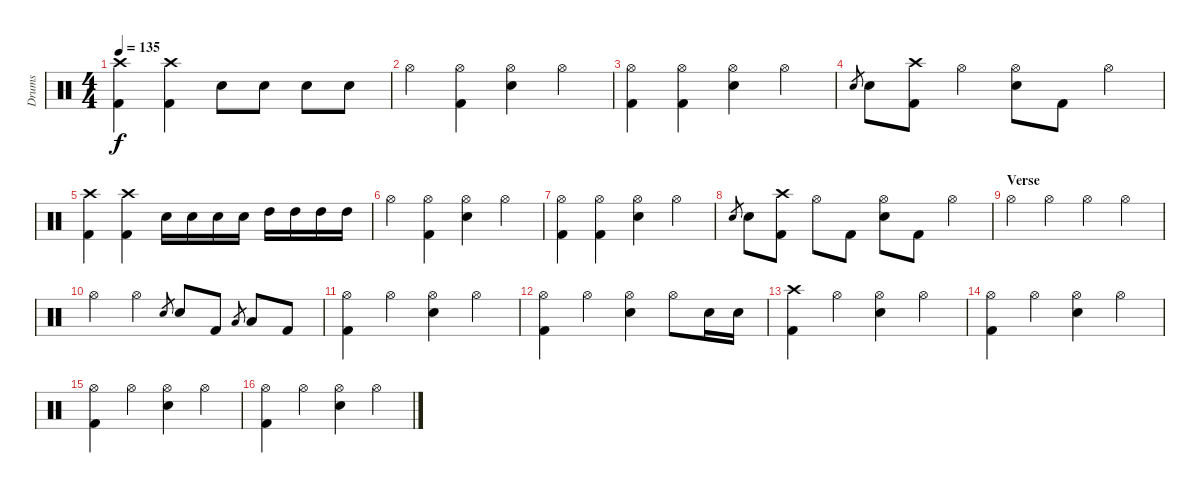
\track ("Drums" "Drums") {instrument percussion}
\staff {score}
\articulation defaults
\ts (4 4)
\tempo 135
\clef neutral
\ks c
("Crash high (hit)" "Kick (hit) 2").4{dy f} ("Crash high (hit)" "Kick (hit) 2").4 "Electric Snare (hit)".8 "Electric Snare (hit)".8 "Electric Snare (hit)".8 "Electric Snare (hit)".8 |
"Hi-Hat (open)".4 ("Hi-Hat (open)" "Kick (hit) 2").4 ("Hi-Hat (open)" "Electric Snare (hit)").4 "Hi-Hat (open)".4 |
("Hi-Hat (open)" "Kick (hit) 2").4 ("Hi-Hat (open)" "Kick (hit) 2").4 ("Hi-Hat (open)" "Electric Snare (hit)").4 "Hi-Hat (open)".4 |
"Electric Snare (hit)".8{gr} "Electric Snare (hit)".8 ("Crash high (hit)" "Kick (hit) 2").8 "Hi-Hat (open)".4 ("Hi-Hat (open)" "Electric Snare (hit)").8 "Kick (hit) 2".8 "Hi-Hat (open)".4 |
("Crash high (hit)" "Kick (hit) 2").4 ("Crash high (hit)" "Kick (hit) 2").4 "Electric Snare (hit)".16 "Electric Snare (hit)".16 "Electric Snare (hit)".16 "Electric Snare (hit)".16 "High Tom (hit)".16 "High Tom (hit)".16 "High Tom (hit)".16 "High Tom (hit)".16 |
"Hi-Hat (open)".4 ("Hi-Hat (open)" "Kick (hit) 2").4 ("Hi-Hat (open)" "Electric Snare (hit)").4 "Hi-Hat (open)".4 |
("Hi-Hat (open)" "Kick (hit) 2").4 ("Hi-Hat (open)" "Kick (hit) 2").4 ("Hi-Hat (open)" "Electric Snare (hit)").4 "Hi-Hat (open)".4 |
"Electric Snare (hit)".8{gr} "Electric Snare (hit)".8 ("Crash high (hit)" "Kick (hit) 2").8 "Hi-Hat (open)".8 "Kick (hit) 2".8 ("Hi-Hat (open)" "Electric Snare (hit)").8 "Kick (hit) 2".8 "Hi-Hat (open)".4 |
\section ("" "Verse")
"Hi-Hat (open)".4 "Hi-Hat (open)".4 "Hi-Hat (open)".4 "Hi-Hat (open)".4 |
"Hi-Hat (open)".4 "Hi-Hat (open)".4 "Electric Snare (hit)".8{gr} "Electric Snare (hit)".8 "Kick (hit) 2".8 "Low Tom (hit)".8{gr} "Low Tom (hit)".8 "Kick (hit) 2".8 |
("Hi-Hat (open)" "Kick (hit) 2").4 "Hi-Hat (open)".4 ("Hi-Hat (open)" "Electric Snare (hit)").4 "Hi-Hat (open)".4 |
("Hi-Hat (open)" "Kick (hit) 2").4 "Hi-Hat (open)".4 ("Hi-Hat (open)" "Electric Snare (hit)").4 "Hi-Hat (open)".8 "Electric Snare (hit)".16 "Electric Snare (hit)".16 |
("Crash high (hit)" "Kick (hit) 2").4 "Hi-Hat (open)".4 ("Hi-Hat (open)" "Electric Snare (hit)").4 "Hi-Hat (open)".4 |
("Hi-Hat (open)" "Kick (hit) 2").4 "Hi-Hat (open)".4 ("Hi-Hat (open)" "Electric Snare (hit)").4 "Hi-Hat (open)".4 |
("Hi-Hat (open)" "Kick (hit) 2").4 "Hi-Hat (open)".4 ("Hi-Hat (open)" "Electric Snare (hit)").4 "Hi-Hat (open)".4 |
("Hi-Hat (open)" "Kick (hit) 2").4 "Hi-Hat (open)".4 ("Hi-Hat (open)" "Electric Snare (hit)").4 "Hi-Hat (open)".4
